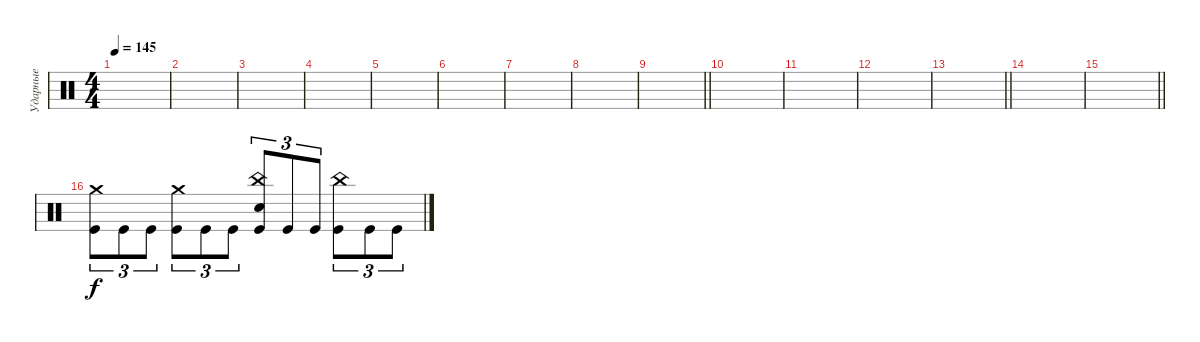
\track ("Ударные" "Ударные") {instrument percussion}
\staff {score}
\articulation defaults
\ts (4 4)
\tempo 145
\clef neutral
\ks c
|
|
|
|
|
|
|
|
\barLineRight lightlight
|
\section ("" " ")
|
|
|
\barLineRight lightlight
|
\section ("" " ")
|
\barLineRight lightlight
|
\section ("" " ")
("Crash medium (hit)" "Kick (hit)").8{tu (3 2)} "Kick (hit)".8{tu (3 2)} "Kick (hit)".8{tu (3 2)} ("Crash medium (hit)" "Kick (hit)").8{tu (3 2)} "Kick (hit)".8{tu (3 2)} "Kick (hit)".8{tu (3 2)} ("China (hit)" "Electric Snare (hit)" "Kick (hit)").8{tu (3 2)} "Kick (hit)".8{tu (3 2)} "Kick (hit)".8{tu (3 2)} ("China (hit)" "Kick (hit)").8{tu (3 2)} "Kick (hit)".8{tu (3 2)} "Kick (hit)".8{tu (3 2)}
